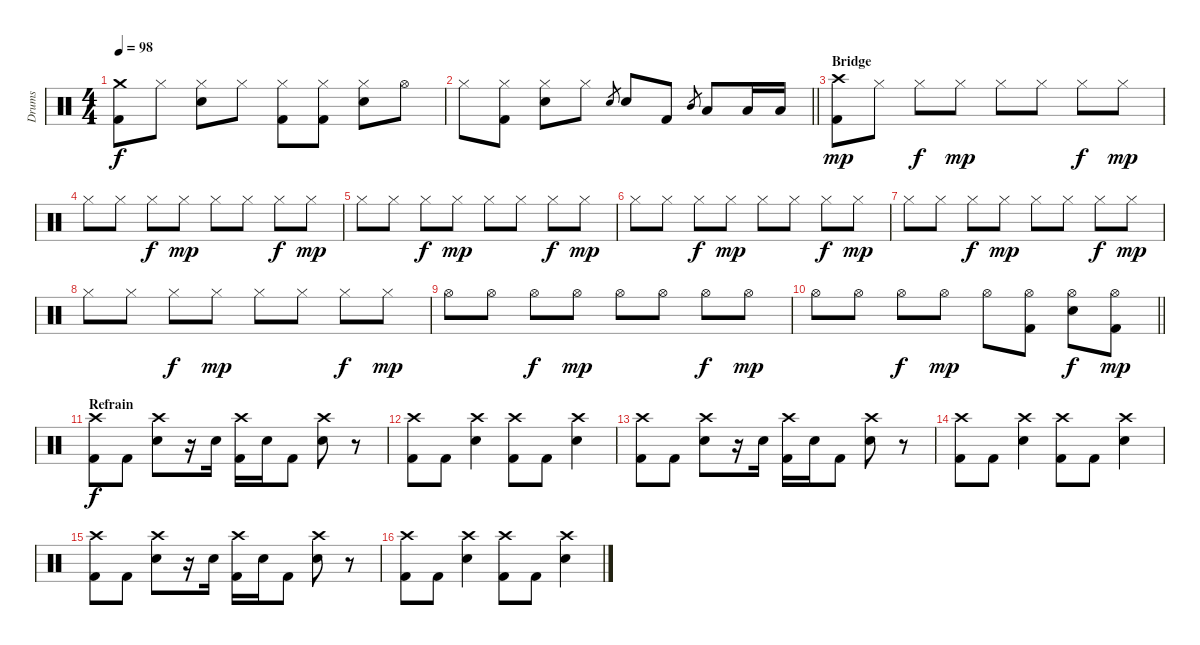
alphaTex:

\track ("Drums" "Drums") {instrument percussion}
\staff {score}
\articulation defaults
\ts (4 4)
\tempo 98
\clef neutral
\ks c
("Crash medium (hit)" "Kick (hit) 2").8{dy f} "Hi-Hat (closed)".8 ("Hi-Hat (closed)" "Snare (hit) 2").8 "Hi-Hat (closed)".8 ("Hi-Hat (closed)" "Kick (hit) 2").8 ("Hi-Hat (closed)" "Kick (hit) 2").8 ("Hi-Hat (closed)" "Snare (hit) 2").8 "Hi-Hat (open)".8 |
\barLineRight lightlight "Hi-Hat (closed)".8
("Hi-Hat (closed)" "Kick (hit) 2").8 ("Hi-Hat (closed)" "Snare (hit) 2").8 "Hi-Hat (closed)".8 "Snare (hit) 2".8{gr} "Snare (hit) 2".8 "Kick (hit) 2".8 "Mid Tom (hit)".8{gr} "Low Tom (hit)".8 "Low Tom (hit)".16 "Low Tom (hit)".16 |
\section ("" "Bridge")
("Crash high (hit)" "Kick (hit) 2").8{dy mp} "Hi-Hat (closed)".8 "Hi-Hat (closed)".8{dy f} "Hi-Hat (closed)".8{dy mp} "Hi-Hat (closed)".8 "Hi-Hat (closed)".8 "Hi-Hat (closed)".8{dy f} "Hi-Hat (closed)".8{dy mp} |
"Hi-Hat (closed)".8 "Hi-Hat (closed)".8 "Hi-Hat (closed)".8{dy f} "Hi-Hat (closed)".8{dy mp} "Hi-Hat (closed)".8 "Hi-Hat (closed)".8 "Hi-Hat (closed)".8{dy f} "Hi-Hat (closed)".8{dy mp} |
"Hi-Hat (closed)".8 "Hi-Hat (closed)".8 "Hi-Hat (closed)".8{dy f} "Hi-Hat (closed)".8{dy mp} "Hi-Hat (closed)".8 "Hi-Hat (closed)".8 "Hi-Hat (closed)".8{dy f} "Hi-Hat (closed)".8{dy mp} |
"Hi-Hat (closed)".8 "Hi-Hat (closed)".8 "Hi-Hat (closed)".8{dy f} "Hi-Hat (closed)".8{dy mp} "Hi-Hat (closed)".8 "Hi-Hat (closed)".8 "Hi-Hat (closed)".8{dy f} "Hi-Hat (closed)".8{dy mp} |
"Hi-Hat (closed)".8 "Hi-Hat (closed)".8 "Hi-Hat (closed)".8{dy f} "Hi-Hat (closed)".8{dy mp} "Hi-Hat (closed)".8 "Hi-Hat (closed)".8 "Hi-Hat (closed)".8{dy f} "Hi-Hat (closed)".8{dy mp} |
"Hi-Hat (closed)".8 "Hi-Hat (closed)".8 "Hi-Hat (closed)".8{dy f} "Hi-Hat (closed)".8{dy mp} "Hi-Hat (closed)".8 "Hi-Hat (closed)".8 "Hi-Hat (closed)".8{dy f} "Hi-Hat (closed)".8{dy mp} |
"Hi-Hat (open)".8 "Hi-Hat (open)".8 "Hi-Hat (open)".8{dy f} "Hi-Hat (open)".8{dy mp} "Hi-Hat (open)".8 "Hi-Hat (open)".8 "Hi-Hat (open)".8{dy f} "Hi-Hat (open)".8{dy mp} |
\barLineRight lightlight "Hi-Hat (open)".8 "Hi-Hat (open)".8 "Hi-Hat (open)".8{dy f} "Hi-Hat (open)".8{dy mp} "Hi-Hat (open)".8
("Hi-Hat (open)" "Kick (hit) 2").8 ("Hi-Hat (open)" "Snare (hit) 2").8{dy f} ("Hi-Hat (open)" "Kick (hit) 2").8{dy mp} |
\section ("" "Refrain")
("Crash high (hit)" "Kick (hit) 2").8{dy f} "Kick (hit) 2".8 ("Crash high (hit)" "Snare (hit) 2").8 r.16 "Snare (hit) 2".16 ("Crash high (hit)" "Kick (hit) 2").16 "Snare (hit) 2".16 "Kick (hit) 2".8 ("Crash high (hit)" "Snare (hit) 2").8 r.8 |
("Crash high (hit)" "Kick (hit) 2").8 "Kick (hit) 2".8 ("Crash high (hit)" "Snare (hit) 2").4 ("Crash high (hit)" "Kick (hit) 2").8 "Kick (hit) 2".8 ("Crash high (hit)" "Snare (hit) 2").4 |
("Crash high (hit)" "Kick (hit) 2").8 "Kick (hit) 2".8 ("Crash high (hit)" "Snare (hit) 2").8 r.16 "Snare (hit) 2".16 ("Crash high (hit)" "Kick (hit) 2").16 "Snare (hit) 2".16 "Kick (hit) 2".8 ("Crash high (hit)" "Snare (hit) 2").8 r.8 |
("Crash high (hit)" "Kick (hit) 2").8 "Kick (hit) 2".8 ("Crash high (hit)" "Snare (hit) 2").4 ("Crash high (hit)" "Kick (hit) 2").8 "Kick (hit) 2".8 ("Crash high (hit)" "Snare (hit) 2").4 |
("Crash high (hit)" "Kick (hit) 2").8 "Kick (hit) 2".8 ("Crash high (hit)" "Snare (hit) 2").8 r.16 "Snare (hit) 2".16 ("Crash high (hit)" "Kick (hit) 2").16 "Snare (hit) 2".16 "Kick (hit) 2".8 ("Crash high (hit)" "Snare (hit) 2").8 r.8 |
("Crash high (hit)" "Kick (hit) 2").8 "Kick (hit) 2".8 ("Crash high (hit)" "Snare (hit) 2").4 ("Crash high (hit)" "Kick (hit) 2").8 "Kick (hit) 2".8 ("Crash high (hit)" "Snare (hit) 2").4
